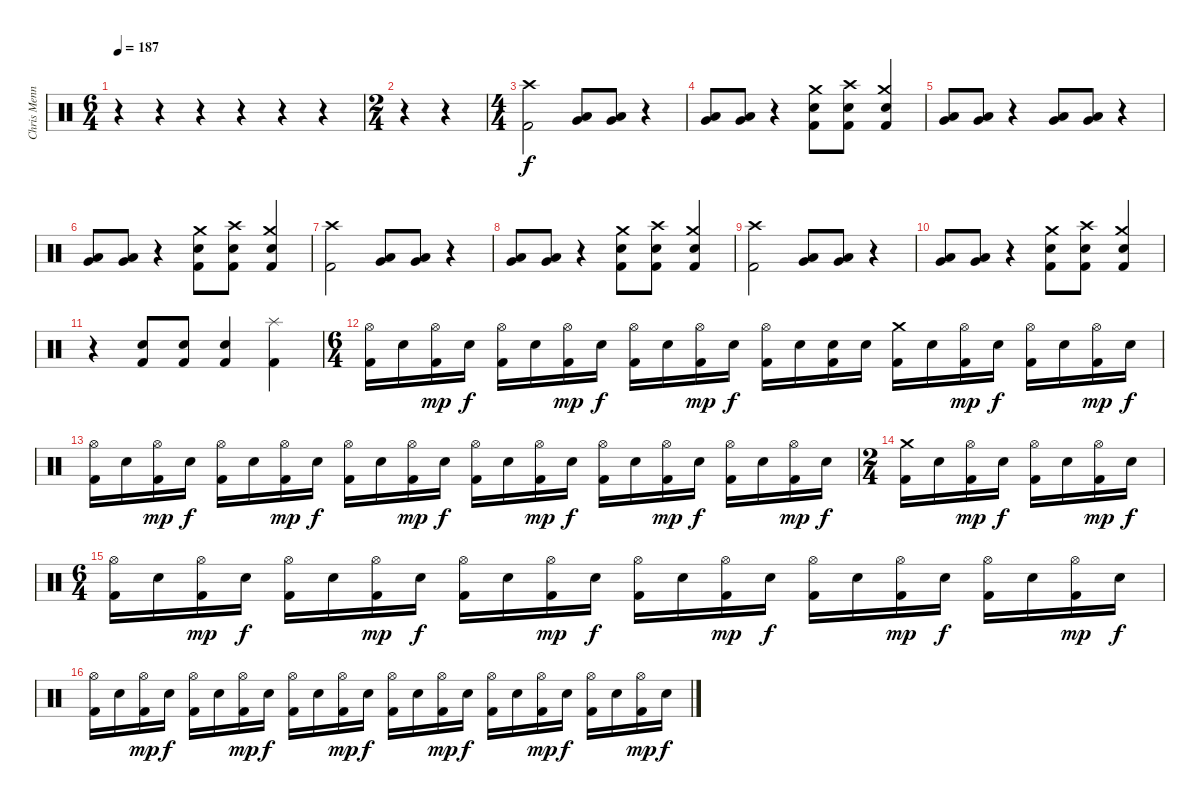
\track ("Chris Menning" "Chris Menn") {instrument percussion}
\staff {score}
\articulation defaults
\ts (6 4)
\tempo 187
\clef neutral
\ks c
r.4{dy f} r.4 r.4 r.4 r.4 r.4 |
\ts (2 4)
r.4 r.4 |
\ts (4 4)
("Crash high (hit)" "Kick (hit) 2").2 ("Low Tom (hit)" "Very Low Tom (hit)").8 ("Low Tom (hit)" "Very Low Tom (hit)").8 r.4 |
("Low Tom (hit)" "Very Low Tom (hit)").8 ("Low Tom (hit)" "Very Low Tom (hit)").8 r.4 ("Crash medium (hit)" "Electric Snare (hit)" "Kick (hit) 2").8 ("Crash high (hit)" "Electric Snare (hit)" "Kick (hit) 2").8 ("Crash medium (hit)" "Electric Snare (hit)" "Kick (hit) 2").4 |
("Low Tom (hit)" "Very Low Tom (hit)").8 ("Low Tom (hit)" "Very Low Tom (hit)").8 r.4 ("Low Tom (hit)" "Very Low Tom (hit)").8 ("Low Tom (hit)" "Very Low Tom (hit)").8 r.4 |
("Low Tom (hit)" "Very Low Tom (hit)").8 ("Low Tom (hit)" "Very Low Tom (hit)").8 r.4 ("Crash medium (hit)" "Electric Snare (hit)" "Kick (hit) 2").8 ("Crash high (hit)" "Electric Snare (hit)" "Kick (hit) 2").8 ("Crash medium (hit)" "Electric Snare (hit)" "Kick (hit) 2").4 |
("Crash high (hit)" "Kick (hit) 2").2 ("Low Tom (hit)" "Very Low Tom (hit)").8 ("Low Tom (hit)" "Very Low Tom (hit)").8 r.4 |
("Low Tom (hit)" "Very Low Tom (hit)").8 ("Low Tom (hit)" "Very Low Tom (hit)").8 r.4 ("Crash medium (hit)" "Electric Snare (hit)" "Kick (hit) 2").8 ("Crash high (hit)" "Electric Snare (hit)" "Kick (hit) 2").8 ("Crash medium (hit)" "Electric Snare (hit)" "Kick (hit) 2").4 |
("Crash high (hit)" "Kick (hit) 2").2 ("Low Tom (hit)" "Very Low Tom (hit)").8 ("Low Tom (hit)" "Very Low Tom (hit)").8 r.4 |
("Low Tom (hit)" "Very Low Tom (hit)").8 ("Low Tom (hit)" "Very Low Tom (hit)").8 r.4 ("Crash medium (hit)" "Electric Snare (hit)" "Kick (hit) 2").8 ("Crash high (hit)" "Electric Snare (hit)" "Kick (hit) 2").8 ("Crash medium (hit)" "Electric Snare (hit)" "Kick (hit) 2").4 |
r.4 ("Electric Snare (hit)" "Kick (hit) 2").8 ("Electric Snare (hit)" "Kick (hit) 2").8 ("Electric Snare (hit)" "Kick (hit) 2").4 ("Splash (hit)" "Kick (hit) 2").4 |
\ts (6 4)
("Hi-Hat (open)" "Kick (hit) 2").16 "Electric Snare (hit)".16 ("Hi-Hat (open)" "Kick (hit) 2").16{dy mp} "Electric Snare (hit)".16{dy f} ("Hi-Hat (open)" "Kick (hit) 2").16 "Electric Snare (hit)".16 ("Hi-Hat (open)" "Kick (hit) 2").16{dy mp} "Electric Snare (hit)".16{dy f} ("Hi-Hat (open)" "Kick (hit) 2").16 "Electric Snare (hit)".16 ("Hi-Hat (open)" "Kick (hit) 2").16{dy mp} "Electric Snare (hit)".16{dy f} ("Hi-Hat (open)" "Kick (hit) 2").16 "Electric Snare (hit)".16 ("Electric Snare (hit)" "Kick (hit) 2").16 "Electric Snare (hit)".16 ("Crash medium (hit)" "Kick (hit) 2").16 "Electric Snare (hit)".16 ("Hi-Hat (open)" "Kick (hit) 2").16{dy mp} "Electric Snare (hit)".16{dy f} ("Hi-Hat (open)" "Kick (hit) 2").16 "Electric Snare (hit)".16 ("Hi-Hat (open)" "Kick (hit) 2").16{dy mp} "Electric Snare (hit)".16{dy f} |
("Hi-Hat (open)" "Kick (hit) 2").16 "Electric Snare (hit)".16 ("Hi-Hat (open)" "Kick (hit) 2").16{dy mp} "Electric Snare (hit)".16{dy f} ("Hi-Hat (open)" "Kick (hit) 2").16 "Electric Snare (hit)".16 ("Hi-Hat (open)" "Kick (hit) 2").16{dy mp} "Electric Snare (hit)".16{dy f} ("Hi-Hat (open)" "Kick (hit) 2").16 "Electric Snare (hit)".16 ("Hi-Hat (open)" "Kick (hit) 2").16{dy mp} "Electric Snare (hit)".16{dy f} ("Hi-Hat (open)" "Kick (hit) 2").16 "Electric Snare (hit)".16 ("Hi-Hat (open)" "Kick (hit) 2").16{dy mp} "Electric Snare (hit)".16{dy f} ("Hi-Hat (open)" "Kick (hit) 2").16 "Electric Snare (hit)".16 ("Hi-Hat (open)" "Kick (hit) 2").16{dy mp} "Electric Snare (hit)".16{dy f} ("Hi-Hat (open)" "Kick (hit) 2").16 "Electric Snare (hit)".16 ("Hi-Hat (open)" "Kick (hit) 2").16{dy mp} "Electric Snare (hit)".16{dy f} |
\ts (2 4)
("Crash medium (hit)" "Kick (hit) 2").16 "Electric Snare (hit)".16 ("Hi-Hat (open)" "Kick (hit) 2").16{dy mp} "Electric Snare (hit)".16{dy f} ("Hi-Hat (open)" "Kick (hit) 2").16 "Electric Snare (hit)".16 ("Hi-Hat (open)" "Kick (hit) 2").16{dy mp} "Electric Snare (hit)".16{dy f} |
\ts (6 4)
("Hi-Hat (open)" "Kick (hit) 2").16 "Electric Snare (hit)".16 ("Hi-Hat (open)" "Kick (hit) 2").16{dy mp} "Electric Snare (hit)".16{dy f} ("Hi-Hat (open)" "Kick (hit) 2").16 "Electric Snare (hit)".16 ("Hi-Hat (open)" "Kick (hit) 2").16{dy mp} "Electric Snare (hit)".16{dy f} ("Hi-Hat (open)" "Kick (hit) 2").16 "Electric Snare (hit)".16 ("Hi-Hat (open)" "Kick (hit) 2").16{dy mp} "Electric Snare (hit)".16{dy f} ("Hi-Hat (open)" "Kick (hit) 2").16 "Electric Snare (hit)".16 ("Hi-Hat (open)" "Kick (hit) 2").16{dy mp} "Electric Snare (hit)".16{dy f} ("Hi-Hat (open)" "Kick (hit) 2").16 "Electric Snare (hit)".16 ("Hi-Hat (open)" "Kick (hit) 2").16{dy mp} "Electric Snare (hit)".16{dy f} ("Hi-Hat (open)" "Kick (hit) 2").16 "Electric Snare (hit)".16 ("Hi-Hat (open)" "Kick (hit) 2").16{dy mp} "Electric Snare (hit)".16{dy f} |
("Hi-Hat (open)" "Kick (hit) 2").16 "Electric Snare (hit)".16 ("Hi-Hat (open)" "Kick (hit) 2").16{dy mp} "Electric Snare (hit)".16{dy f} ("Hi-Hat (open)" "Kick (hit) 2").16 "Electric Snare (hit)".16 ("Hi-Hat (open)" "Kick (hit) 2").16{dy mp} "Electric Snare (hit)".16{dy f} ("Hi-Hat (open)" "Kick (hit) 2").16 "Electric Snare (hit)".16 ("Hi-Hat (open)" "Kick (hit) 2").16{dy mp} "Electric Snare (hit)".16{dy f} ("Hi-Hat (open)" "Kick (hit) 2").16 "Electric Snare (hit)".16 ("Hi-Hat (open)" "Kick (hit) 2").16{dy mp} "Electric Snare (hit)".16{dy f} ("Hi-Hat (open)" "Kick (hit) 2").16 "Electric Snare (hit)".16 ("Hi-Hat (open)" "Kick (hit) 2").16{dy mp} "Electric Snare (hit)".16{dy f} ("Hi-Hat (open)" "Kick (hit) 2").16 "Electric Snare (hit)".16 ("Hi-Hat (open)" "Kick (hit) 2").16{dy mp} "Electric Snare (hit)".16{dy f}
